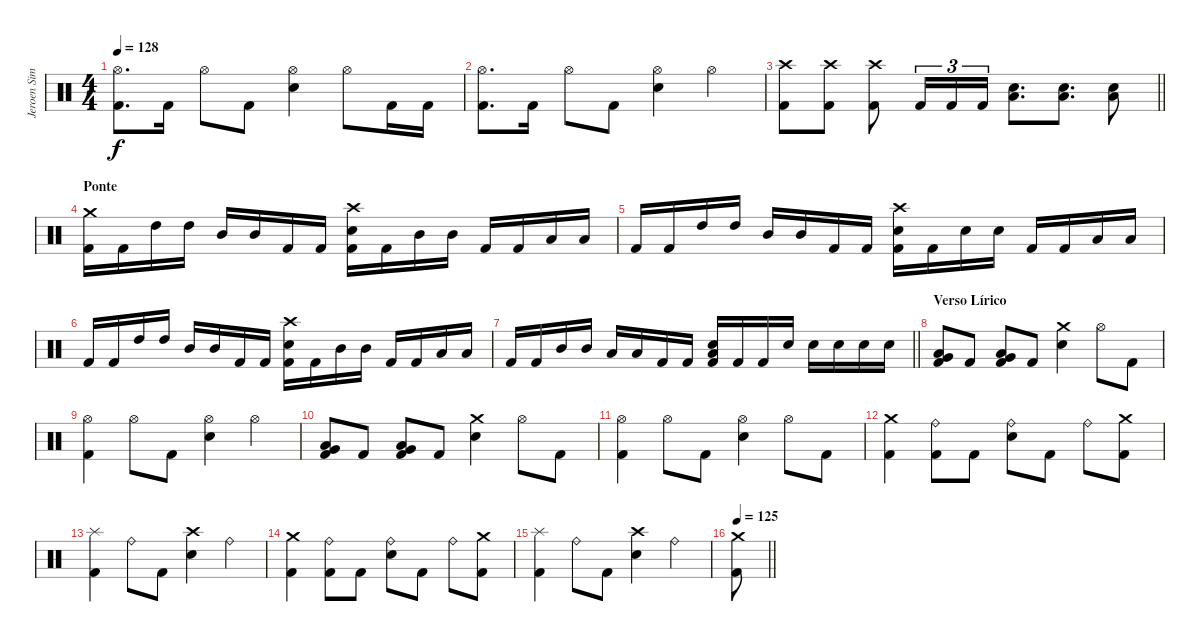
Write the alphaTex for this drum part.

\track ("Jeroen Simons" "Jeroen Sim") {instrument percussion}
\staff {score}
\articulation defaults
\ts (4 4)
\tempo 128
\clef neutral
\ks c
("Hi-Hat (open)" "Kick (hit) 2").8{d dy f} "Kick (hit) 2".16 "Hi-Hat (open)".8 "Kick (hit) 2".8 ("Hi-Hat (open)" "Electric Snare (hit)").4 "Hi-Hat (open)".8 "Kick (hit) 2".16 "Kick (hit) 2".16 |
("Hi-Hat (open)" "Kick (hit) 2").8{d} "Kick (hit) 2".16 "Hi-Hat (open)".8 "Kick (hit) 2".8 ("Hi-Hat (open)" "Electric Snare (hit)").4 "Hi-Hat (open)".4 |
\barLineRight lightlight
("Crash high (hit)" "Kick (hit) 2").8 ("Crash high (hit)" "Kick (hit) 2").8 ("Crash high (hit)" "Kick (hit) 2").8 "Kick (hit) 2".16{tu (3 2)} "Kick (hit) 2".16{tu (3 2)} "Kick (hit) 2".16{tu (3 2)} ("Low Tom (hit)" "Electric Snare (hit)").8{d} ("Low Tom (hit)" "Electric Snare (hit)").8{d} ("Low Tom (hit)" "Electric Snare (hit)").8 |
\section ("" "Ponte")
("Crash medium (hit)" "Kick (hit) 2").16 "Kick (hit) 2".16 "High Tom (hit)".16 "High Tom (hit)".16 "Mid Tom (hit)".16 "Mid Tom (hit)".16 "Kick (hit) 2".16 "Kick (hit) 2".16 ("Crash high (hit)" "Electric Snare (hit)" "Kick (hit) 2").16 "Kick (hit) 2".16 "Mid Tom (hit)".16 "Mid Tom (hit)".16 "Kick (hit) 2".16 "Kick (hit) 2".16 "Low Tom (hit)".16 "Low Tom (hit)".16 |
"Kick (hit) 2".16 "Kick (hit) 2".16 "High Tom (hit)".16 "High Tom (hit)".16 "Mid Tom (hit)".16 "Mid Tom (hit)".16 "Kick (hit) 2".16 "Kick (hit) 2".16 ("Crash high (hit)" "Electric Snare (hit)" "Kick (hit) 2").16 "Kick (hit) 2".16 "Electric Snare (hit)".16 "Electric Snare (hit)".16 "Kick (hit) 2".16 "Kick (hit) 2".16 "Low Tom (hit)".16 "Low Tom (hit)".16 |
"Kick (hit) 2".16 "Kick (hit) 2".16 "High Tom (hit)".16 "High Tom (hit)".16 "Mid Tom (hit)".16 "Mid Tom (hit)".16 "Kick (hit) 2".16 "Kick (hit) 2".16 ("Crash high (hit)" "Electric Snare (hit)" "Kick (hit) 2").16 "Kick (hit) 2".16 "Mid Tom (hit)".16 "Mid Tom (hit)".16 "Kick (hit) 2".16 "Kick (hit) 2".16 "Low Tom (hit)".16 "Low Tom (hit)".16 |
\barLineRight lightlight "Kick (hit) 2".16 "Kick (hit) 2".16 "Mid Tom (hit)".16 "Mid Tom (hit)".16 "Low Tom (hit)".16 "Low Tom (hit)".16 "Kick (hit) 2".16 "Kick (hit) 2".16
("Low Tom (hit)" "Electric Snare (hit)" "Kick (hit) 2").16 "Kick (hit) 2".16 "Kick (hit) 2".16 "Electric Snare (hit)".16 "Electric Snare (hit)".16 "Electric Snare (hit)".16 "Electric Snare (hit)".16 "Electric Snare (hit)".16 |
\section ("" "Verso Lírico")
("Very Low Tom (hit)" "Low Tom (hit)" "Kick (hit) 2").8 "Kick (hit) 2".8 ("Very Low Tom (hit)" "Low Tom (hit)" "Kick (hit) 2").8 "Kick (hit) 2".8 ("Crash medium (hit)" "Electric Snare (hit)").4 "Hi-Hat (open)".8 "Kick (hit) 2".8 |
("Hi-Hat (open)" "Kick (hit) 2").4 "Hi-Hat (open)".8 "Kick (hit) 2".8 ("Hi-Hat (open)" "Electric Snare (hit)").4 "Hi-Hat (open)".4 |
("Very Low Tom (hit)" "Low Tom (hit)" "Kick (hit) 2").8 "Kick (hit) 2".8 ("Very Low Tom (hit)" "Low Tom (hit)" "Kick (hit) 2").8 "Kick (hit) 2".8 ("Crash medium (hit)" "Electric Snare (hit)").4 "Hi-Hat (open)".8 "Kick (hit) 2".8 |
("Hi-Hat (open)" "Kick (hit) 2").4 "Hi-Hat (open)".8 "Kick (hit) 2".8 ("Hi-Hat (open)" "Electric Snare (hit)").4 "Hi-Hat (open)".8 "Kick (hit) 2".8 |
("Crash medium (hit)" "Kick (hit) 2").4 ("Ride (bell)" "Kick (hit) 2").8 "Kick (hit) 2".8 ("Ride (bell)" "Electric Snare (hit)").8 "Kick (hit) 2".8 "Ride (bell)".8 ("Crash medium (hit)" "Kick (hit) 2").8 |
("Splash (hit)" "Kick (hit) 2").4 "Ride (bell)".8 "Kick (hit) 2".8 ("Crash high (hit)" "Electric Snare (hit)").4 "Ride (bell)".4 |
("Crash medium (hit)" "Kick (hit) 2").4 ("Ride (bell)" "Kick (hit) 2").8 "Kick (hit) 2".8 ("Ride (bell)" "Electric Snare (hit)").8 "Kick (hit) 2".8 "Ride (bell)".8 ("Crash medium (hit)" "Kick (hit) 2").8 |
("Splash (hit)" "Kick (hit) 2").4 "Ride (bell)".8 "Kick (hit) 2".8 ("Crash high (hit)" "Electric Snare (hit)").4 "Ride (bell)".4 |
\tempo 125
\barLineRight lightlight
("Crash medium (hit)" "Kick (hit) 2").8
